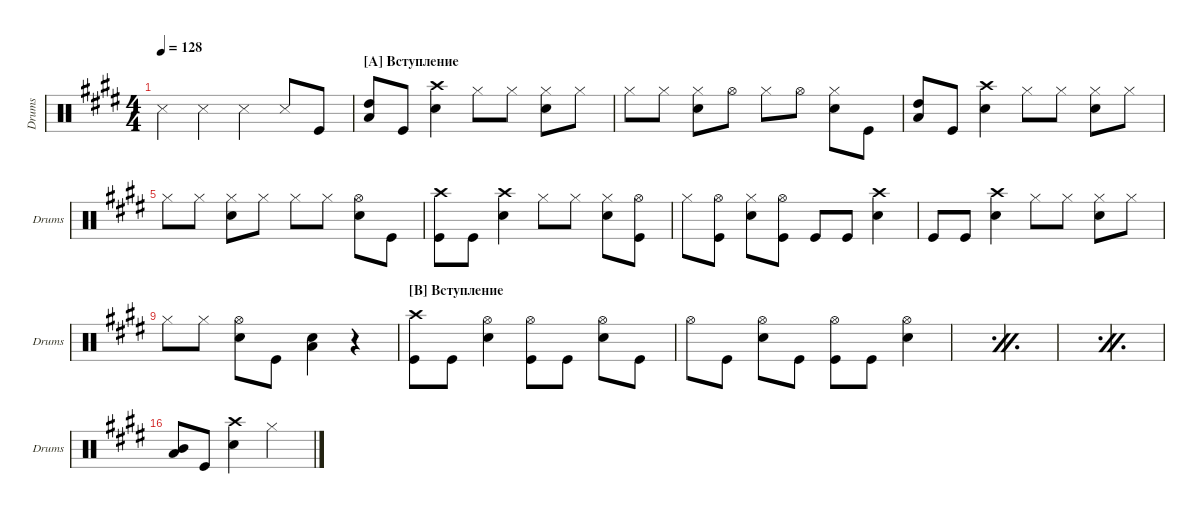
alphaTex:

\defaultSystemsLayout 4
\hideDynamics
\bracketExtendMode groupsimilarinstruments
\singleTrackTrackNamePolicy allsystems
\multiTrackTrackNamePolicy allsystems
\otherSystemsTrackNameOrientation horizontal
\defaultBarNumberDisplay FirstOfSystem
\track ("Drumkit" "Drums") {instrument percussion}
\staff {score}
\articulation defaults
\ts (4 4)
\tempo 128
\clef neutral
\ks e "Snare (side stick) 3".4{dy mf} "Snare (side stick) 3".4 "Snare (side stick) 3".4 "Snare (side stick) 3".8 "Kick (hit)".8
|
\section ("A" "Вступление")
("High Tom (hit)" "Low Tom (hit)").8 "Kick (hit)".8 ("Snare (hit) 2" "Crash high (hit)").4 "Hi-Hat (closed)".8 "Hi-Hat (closed)".8 ("Hi-Hat (closed)" "Snare (hit) 2").8 "Hi-Hat (closed)".8 |
"Hi-Hat (closed)".8 "Hi-Hat (closed)".8 ("Snare (hit) 2" "Hi-Hat (closed)").8 "Hi-Hat (open)".8 "Hi-Hat (closed)".8 "Hi-Hat (open)".8 ("Hi-Hat (closed)" "Snare (hit) 2").8 "Kick (hit)".8 |
("High Tom (hit)" "Low Tom (hit)").8 "Kick (hit)".8 ("Snare (hit) 2" "Crash high (hit)").4 "Hi-Hat (closed)".8 "Hi-Hat (closed)".8 ("Hi-Hat (closed)" "Snare (hit) 2").8 "Hi-Hat (closed)".8 |
"Hi-Hat (closed)".8 "Hi-Hat (closed)".8 ("Snare (hit) 2" "Hi-Hat (closed)").8 "Hi-Hat (closed)".8 "Hi-Hat (closed)".8 "Hi-Hat (closed)".8 ("Snare (hit) 2" "Hi-Hat (open)").8 "Kick (hit)".8 |
("Crash high (hit)" "Kick (hit)").8 "Kick (hit)".8 ("Snare (hit) 2" "Crash high (hit)").4 "Hi-Hat (closed)".8 "Hi-Hat (closed)".8 ("Hi-Hat (closed)" "Snare (hit) 2").8 ("Hi-Hat (open)" "Kick (hit)").8 |
"Hi-Hat (closed)".8 ("Hi-Hat (open)" "Kick (hit)").8 ("Snare (hit) 2" "Hi-Hat (closed)").8 ("Hi-Hat (open)" "Kick (hit)").8 "Kick (hit)".8 "Kick (hit)".8 ("Snare (hit) 2" "Crash high (hit)").4 |
"Kick (hit)".8 "Kick (hit)".8 ("Snare (hit) 2" "Crash high (hit)").4 "Hi-Hat (closed)".8 "Hi-Hat (closed)".8 ("Hi-Hat (closed)" "Snare (hit) 2").8 "Hi-Hat (closed)".8 |
"Hi-Hat (closed)".8 "Hi-Hat (closed)".8 ("Hi-Hat (open)" "Snare (hit) 2").8 "Kick (hit)".8 ("Snare (hit) 2" "Low Tom (hit)").4 r.4 |
\section ("B" "Вступление")
("Kick (hit)" "Crash high (hit)").8 "Kick (hit)".8 ("Snare (hit) 2" "Hi-Hat (open)").4 ("Kick (hit)" "Hi-Hat (open)").8 "Kick (hit)".8 ("Snare (hit) 2" "Hi-Hat (open)").8 "Kick (hit)".8 |
"Hi-Hat (open)".8 "Kick (hit)".8 ("Snare (hit) 2" "Hi-Hat (open)").8 "Kick (hit)".8 ("Kick (hit)" "Hi-Hat (open)").8 "Kick (hit)".8 ("Snare (hit) 2" "Hi-Hat (open)").4 |
\simile firstofdouble
|
\simile secondofdouble
|
\simile firstofdouble
|
\simile secondofdouble
|
\simile none
("Low Tom (hit)" "Mid Tom (hit)").8 "Kick (hit)".8 ("Snare (hit) 2" "Crash high (hit)").4 "Hi-Hat (closed)".2
